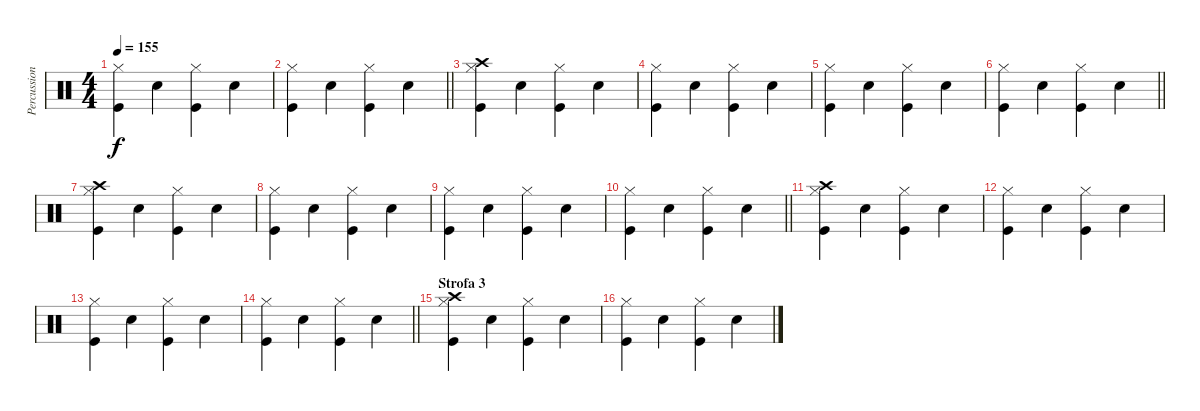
\track ("Percussioni" "Percussion") {instrument percussion}
\staff {score}
\articulation defaults
\ts (4 4)
\tempo 155
\clef neutral
\ks c
("Hi-Hat (closed)" "Kick (hit)").4{dy f} "Snare (hit) 2".4 ("Hi-Hat (closed)" "Kick (hit)").4 "Snare (hit) 2".4 |
\barLineRight lightlight
("Hi-Hat (closed)" "Kick (hit)").4 "Snare (hit) 2".4 ("Hi-Hat (closed)" "Kick (hit)").4 "Snare (hit) 2".4 |
("Hi-Hat (closed)" "Kick (hit)" "Crash high (hit)").4 "Snare (hit) 2".4 ("Hi-Hat (closed)" "Kick (hit)").4 "Snare (hit) 2".4 |
("Hi-Hat (closed)" "Kick (hit)").4 "Snare (hit) 2".4 ("Hi-Hat (closed)" "Kick (hit)").4 "Snare (hit) 2".4 |
("Hi-Hat (closed)" "Kick (hit)").4 "Snare (hit) 2".4 ("Hi-Hat (closed)" "Kick (hit)").4 "Snare (hit) 2".4 |
\barLineRight lightlight
("Hi-Hat (closed)" "Kick (hit)").4 "Snare (hit) 2".4 ("Hi-Hat (closed)" "Kick (hit)").4 "Snare (hit) 2".4 |
("Hi-Hat (closed)" "Kick (hit)" "Crash high (hit)").4 "Snare (hit) 2".4 ("Hi-Hat (closed)" "Kick (hit)").4 "Snare (hit) 2".4 |
("Hi-Hat (closed)" "Kick (hit)").4 "Snare (hit) 2".4 ("Hi-Hat (closed)" "Kick (hit)").4 "Snare (hit) 2".4 |
("Hi-Hat (closed)" "Kick (hit)").4 "Snare (hit) 2".4 ("Hi-Hat (closed)" "Kick (hit)").4 "Snare (hit) 2".4 |
\barLineRight lightlight
("Hi-Hat (closed)" "Kick (hit)").4 "Snare (hit) 2".4 ("Hi-Hat (closed)" "Kick (hit)").4 "Snare (hit) 2".4 |
("Hi-Hat (closed)" "Kick (hit)" "Crash high (hit)").4 "Snare (hit) 2".4 ("Hi-Hat (closed)" "Kick (hit)").4 "Snare (hit) 2".4 |
("Hi-Hat (closed)" "Kick (hit)").4 "Snare (hit) 2".4 ("Hi-Hat (closed)" "Kick (hit)").4 "Snare (hit) 2".4 |
("Hi-Hat (closed)" "Kick (hit)").4 "Snare (hit) 2".4 ("Hi-Hat (closed)" "Kick (hit)").4 "Snare (hit) 2".4 |
\barLineRight lightlight
("Hi-Hat (closed)" "Kick (hit)").4 "Snare (hit) 2".4 ("Hi-Hat (closed)" "Kick (hit)").4 "Snare (hit) 2".4 |
\section ("" "Strofa 3")
("Hi-Hat (closed)" "Kick (hit)" "Crash high (hit)").4 "Snare (hit) 2".4 ("Hi-Hat (closed)" "Kick (hit)").4 "Snare (hit) 2".4 |
("Hi-Hat (closed)" "Kick (hit)").4 "Snare (hit) 2".4 ("Hi-Hat (closed)" "Kick (hit)").4 "Snare (hit) 2".4
